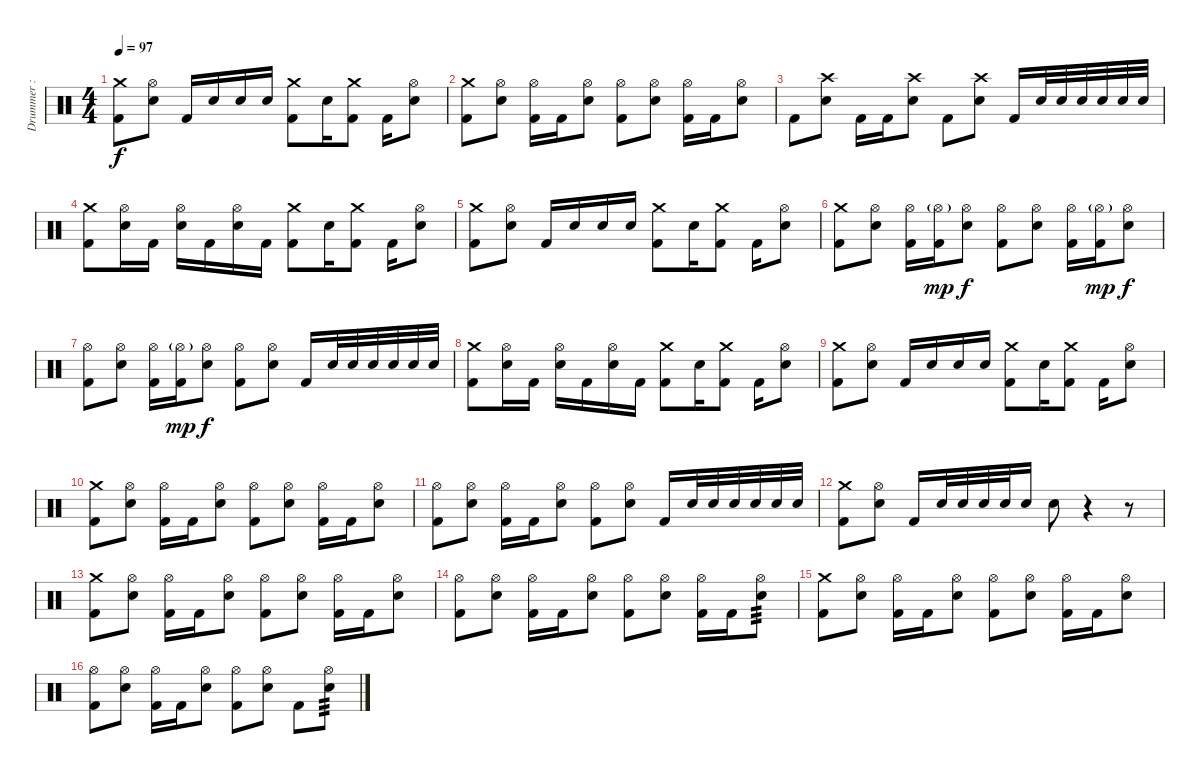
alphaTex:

\track ("Drummer : Tainaka Ritsu - Tan" "Drummer : ") {instrument percussion}
\staff {score}
\articulation defaults
\ts (4 4)
\tempo 97
\clef neutral
\ks c
("Crash medium (hit)" "Kick (hit) 2").8{dy f} ("Hi-Hat (open)" "Electric Snare (hit)").8 "Kick (hit) 2".16 "Electric Snare (hit)".16 "Electric Snare (hit)".16 "Electric Snare (hit)".16 ("Crash medium (hit)" "Kick (hit) 2").8 "Electric Snare (hit)".16 ("Crash medium (hit)" "Kick (hit) 2").8 "Kick (hit) 2".16 ("Hi-Hat (open)" "Electric Snare (hit)").8 |
("Crash medium (hit)" "Kick (hit) 2").8 ("Hi-Hat (open)" "Electric Snare (hit)").8 ("Hi-Hat (open)" "Kick (hit) 2").16 "Kick (hit) 2".16 ("Hi-Hat (open)" "Electric Snare (hit)").8 ("Hi-Hat (open)" "Kick (hit) 2").8 ("Hi-Hat (open)" "Electric Snare (hit)").8 ("Hi-Hat (open)" "Kick (hit) 2").16 "Kick (hit) 2".16 ("Hi-Hat (open)" "Electric Snare (hit)").8 |
"Kick (hit) 2".8 ("Crash high (hit)" "Electric Snare (hit)").8 "Kick (hit) 2".16 "Kick (hit) 2".16 ("Crash high (hit)" "Electric Snare (hit)").8 "Kick (hit) 2".8 ("Crash high (hit)" "Electric Snare (hit)").8 "Kick (hit) 2".16 "Electric Snare (hit)".32 "Electric Snare (hit)".32 "Electric Snare (hit)".32 "Electric Snare (hit)".32 "Electric Snare (hit)".32 "Electric Snare (hit)".32 |
("Crash medium (hit)" "Kick (hit) 2").8 ("Hi-Hat (open)" "Electric Snare (hit)").16 "Kick (hit) 2".16 ("Hi-Hat (open)" "Electric Snare (hit)").16 "Kick (hit) 2".16 ("Hi-Hat (open)" "Electric Snare (hit)").16 "Kick (hit) 2".16 ("Crash medium (hit)" "Kick (hit) 2").8 "Electric Snare (hit)".16 ("Crash medium (hit)" "Kick (hit) 2").8 "Kick (hit) 2".16 ("Hi-Hat (open)" "Electric Snare (hit)").8 |
("Crash medium (hit)" "Kick (hit) 2").8 ("Hi-Hat (open)" "Electric Snare (hit)").8 "Kick (hit) 2".16 "Electric Snare (hit)".16 "Electric Snare (hit)".16 "Electric Snare (hit)".16 ("Crash medium (hit)" "Kick (hit) 2").8 "Electric Snare (hit)".16 ("Crash medium (hit)" "Kick (hit) 2").8 "Kick (hit) 2".16 ("Hi-Hat (open)" "Electric Snare (hit)").8 |
("Crash medium (hit)" "Kick (hit) 2").8 ("Hi-Hat (open)" "Electric Snare (hit)").8 ("Hi-Hat (open)" "Kick (hit) 2").16 ("Hi-Hat (open)"{g} "Kick (hit) 2").16{dy mp} ("Hi-Hat (open)" "Electric Snare (hit)").8{dy f} ("Hi-Hat (open)" "Kick (hit) 2").8 ("Hi-Hat (open)" "Electric Snare (hit)").8 ("Hi-Hat (open)" "Kick (hit) 2").16 ("Hi-Hat (open)"{g} "Kick (hit) 2").16{dy mp} ("Hi-Hat (open)" "Electric Snare (hit)").8{dy f} |
("Hi-Hat (open)" "Kick (hit) 2").8 ("Hi-Hat (open)" "Electric Snare (hit)").8 ("Hi-Hat (open)" "Kick (hit) 2").16 ("Hi-Hat (open)"{g} "Kick (hit) 2").16{dy mp} ("Hi-Hat (open)" "Electric Snare (hit)").8{dy f} ("Hi-Hat (open)" "Kick (hit) 2").8 ("Hi-Hat (open)" "Electric Snare (hit)").8 "Kick (hit) 2".16 "Electric Snare (hit)".32 "Electric Snare (hit)".32 "Electric Snare (hit)".32 "Electric Snare (hit)".32 "Electric Snare (hit)".32 "Electric Snare (hit)".32 |
("Crash medium (hit)" "Kick (hit) 2").8 ("Hi-Hat (open)" "Electric Snare (hit)").16 "Kick (hit) 2".16 ("Hi-Hat (open)" "Electric Snare (hit)").16 "Kick (hit) 2".16 ("Hi-Hat (open)" "Electric Snare (hit)").16 "Kick (hit) 2".16 ("Crash medium (hit)" "Kick (hit) 2").8 "Electric Snare (hit)".16 ("Crash medium (hit)" "Kick (hit) 2").8 "Kick (hit) 2".16 ("Hi-Hat (open)" "Electric Snare (hit)").8 |
("Crash medium (hit)" "Kick (hit) 2").8 ("Hi-Hat (open)" "Electric Snare (hit)").8 "Kick (hit) 2".16 "Electric Snare (hit)".16 "Electric Snare (hit)".16 "Electric Snare (hit)".16 ("Crash medium (hit)" "Kick (hit) 2").8 "Electric Snare (hit)".16 ("Crash medium (hit)" "Kick (hit) 2").8 "Kick (hit) 2".16 ("Hi-Hat (open)" "Electric Snare (hit)").8 |
("Crash medium (hit)" "Kick (hit) 2").8 ("Hi-Hat (open)" "Electric Snare (hit)").8 ("Hi-Hat (open)" "Kick (hit) 2").16 "Kick (hit) 2".16 ("Hi-Hat (open)" "Electric Snare (hit)").8 ("Hi-Hat (open)" "Kick (hit) 2").8 ("Hi-Hat (open)" "Electric Snare (hit)").8 ("Hi-Hat (open)" "Kick (hit) 2").16 "Kick (hit) 2".16 ("Hi-Hat (open)" "Electric Snare (hit)").8 |
("Hi-Hat (open)" "Kick (hit) 2").8 ("Hi-Hat (open)" "Electric Snare (hit)").8 ("Hi-Hat (open)" "Kick (hit) 2").16 "Kick (hit) 2".16 ("Hi-Hat (open)" "Electric Snare (hit)").8 ("Hi-Hat (open)" "Kick (hit) 2").8 ("Hi-Hat (open)" "Electric Snare (hit)").8 "Kick (hit) 2".16 "Electric Snare (hit)".32 "Electric Snare (hit)".32 "Electric Snare (hit)".32 "Electric Snare (hit)".32 "Electric Snare (hit)".32 "Electric Snare (hit)".32 |
("Crash medium (hit)" "Kick (hit) 2").8 ("Hi-Hat (open)" "Electric Snare (hit)").8 "Kick (hit) 2".16 "Electric Snare (hit)".32 "Electric Snare (hit)".32 "Electric Snare (hit)".32 "Electric Snare (hit)".32 "Electric Snare (hit)".16 "Electric Snare (hit)".8 r.4 r.8 |
("Crash medium (hit)" "Kick (hit) 2").8 ("Hi-Hat (open)" "Electric Snare (hit)").8 ("Hi-Hat (open)" "Kick (hit) 2").16 "Kick (hit) 2".16 ("Hi-Hat (open)" "Electric Snare (hit)").8 ("Hi-Hat (open)" "Kick (hit) 2").8 ("Hi-Hat (open)" "Electric Snare (hit)").8 ("Hi-Hat (open)" "Kick (hit) 2").16 "Kick (hit) 2".16 ("Hi-Hat (open)" "Electric Snare (hit)").8 |
("Hi-Hat (open)" "Kick (hit) 2").8 ("Hi-Hat (open)" "Electric Snare (hit)").8 ("Hi-Hat (open)" "Kick (hit) 2").16 "Kick (hit) 2".16 ("Hi-Hat (open)" "Electric Snare (hit)").8 ("Hi-Hat (open)" "Kick (hit) 2").8 ("Hi-Hat (open)" "Electric Snare (hit)").8 ("Hi-Hat (open)" "Kick (hit) 2").16 "Kick (hit) 2".16 ("Hi-Hat (open)" "Electric Snare (hit)").8{tp 3} |
("Crash medium (hit)" "Kick (hit) 2").8 ("Hi-Hat (open)" "Electric Snare (hit)").8 ("Hi-Hat (open)" "Kick (hit) 2").16 "Kick (hit) 2".16 ("Hi-Hat (open)" "Electric Snare (hit)").8 ("Hi-Hat (open)" "Kick (hit) 2").8 ("Hi-Hat (open)" "Electric Snare (hit)").8 ("Hi-Hat (open)" "Kick (hit) 2").16 "Kick (hit) 2".16 ("Hi-Hat (open)" "Electric Snare (hit)").8 |
("Hi-Hat (open)" "Kick (hit) 2").8 ("Hi-Hat (open)" "Electric Snare (hit)").8 ("Hi-Hat (open)" "Kick (hit) 2").16 "Kick (hit) 2".16 ("Hi-Hat (open)" "Electric Snare (hit)").8 ("Hi-Hat (open)" "Kick (hit) 2").8 ("Hi-Hat (open)" "Electric Snare (hit)").8 "Kick (hit) 2".8 ("Hi-Hat (open)" "Electric Snare (hit)").8{tp 3}
